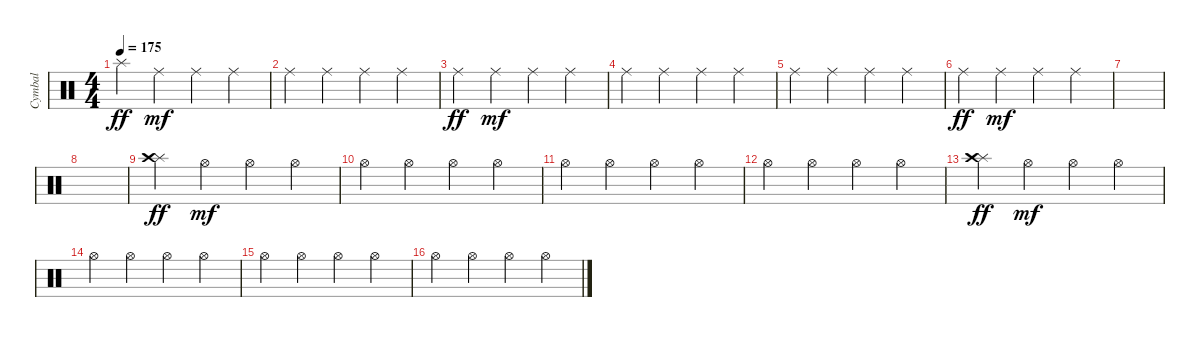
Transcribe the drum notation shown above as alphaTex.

\track ("Cymbal" "Cymbal") {instrument percussion}
\staff {score}
\articulation defaults
\ts (4 4)
\tempo 175
\clef neutral
\ks c "Splash (hit)".4{dy ff} "Ride (middle)".4{dy mf} "Ride (middle)".4 "Ride (middle)".4
|
"Ride (middle)".4 "Ride (middle)".4 "Ride (middle)".4 "Ride (middle)".4 |
"Ride (middle)".4{dy ff} "Ride (middle)".4{dy mf} "Ride (middle)".4 "Ride (middle)".4 |
"Ride (middle)".4 "Ride (middle)".4 "Ride (middle)".4 "Ride (middle)".4 |
"Ride (middle)".4 "Ride (middle)".4 "Ride (middle)".4 "Ride (middle)".4 |
"Ride (middle)".4{dy ff} "Ride (middle)".4{dy mf} "Ride (middle)".4 "Ride (middle)".4 |
|
|
("Splash (hit)" "Crash high (hit)").4{dy ff} "Hi-Hat (open)".4{dy mf} "Hi-Hat (open)".4 "Hi-Hat (open)".4 |
"Hi-Hat (open)".4 "Hi-Hat (open)".4 "Hi-Hat (open)".4 "Hi-Hat (open)".4 |
"Hi-Hat (open)".4 "Hi-Hat (open)".4 "Hi-Hat (open)".4 "Hi-Hat (open)".4 |
"Hi-Hat (open)".4 "Hi-Hat (open)".4 "Hi-Hat (open)".4 "Hi-Hat (open)".4 |
("Splash (hit)" "Crash high (hit)").4{dy ff} "Hi-Hat (open)".4{dy mf} "Hi-Hat (open)".4 "Hi-Hat (open)".4 |
"Hi-Hat (open)".4 "Hi-Hat (open)".4 "Hi-Hat (open)".4 "Hi-Hat (open)".4 |
"Hi-Hat (open)".4 "Hi-Hat (open)".4 "Hi-Hat (open)".4 "Hi-Hat (open)".4 |
"Hi-Hat (open)".4 "Hi-Hat (open)".4 "Hi-Hat (open)".4 "Hi-Hat (open)".4
